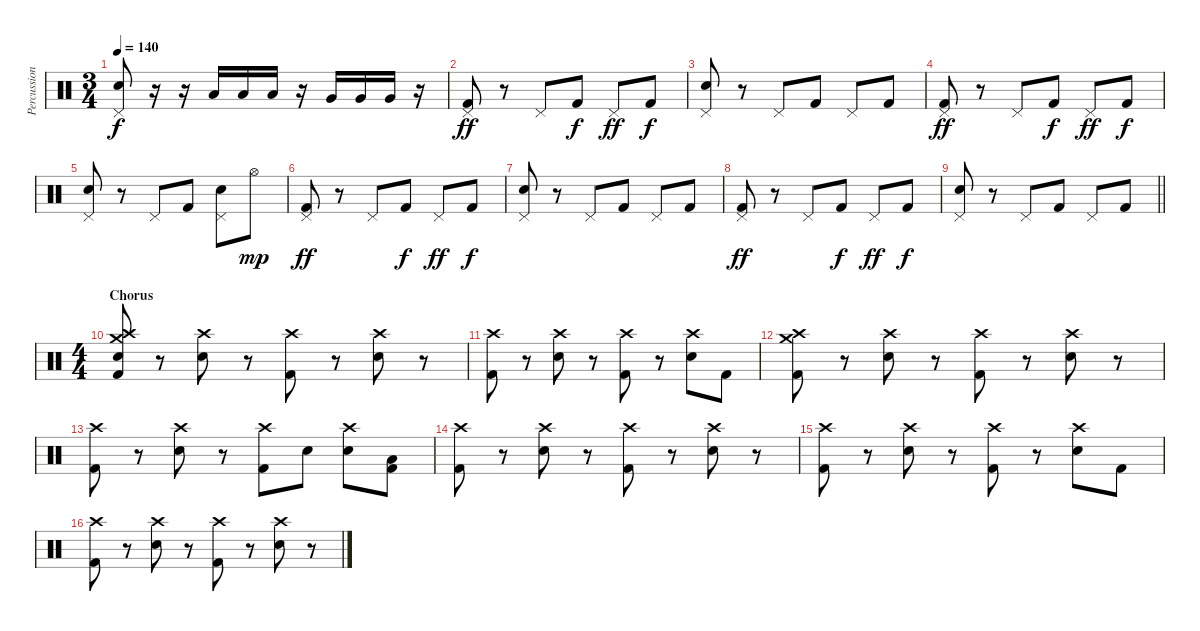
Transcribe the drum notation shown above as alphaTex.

\track ("Percussion" "Percussion") {instrument percussion}
\staff {score}
\articulation defaults
\ts (3 4)
\tempo 140
\clef neutral
\ks c
("Pedal Hi-Hat (hit)" "Electric Snare (hit)").8{dy f} r.16 r.16 "Low Tom (hit)".16 "Low Tom (hit)".16 "Low Tom (hit)".16 r.16 "Very Low Tom (hit)".16 "Very Low Tom (hit)".16 "Very Low Tom (hit)".16 r.16 |
("Pedal Hi-Hat (hit)" "Kick (hit) 2").8{dy ff} r.8 "Pedal Hi-Hat (hit)".8 "Kick (hit) 2".8{dy f} "Pedal Hi-Hat (hit)".8{dy ff} "Kick (hit) 2".8{dy f} |
("Pedal Hi-Hat (hit)" "Electric Snare (hit)").8 r.8 "Pedal Hi-Hat (hit)".8 "Kick (hit) 2".8 "Pedal Hi-Hat (hit)".8 "Kick (hit) 2".8 |
("Pedal Hi-Hat (hit)" "Kick (hit) 2").8{dy ff} r.8 "Pedal Hi-Hat (hit)".8 "Kick (hit) 2".8{dy f} "Pedal Hi-Hat (hit)".8{dy ff} "Kick (hit) 2".8{dy f} |
("Pedal Hi-Hat (hit)" "Electric Snare (hit)").8 r.8 "Pedal Hi-Hat (hit)".8 "Kick (hit) 2".8 ("Pedal Hi-Hat (hit)" "Electric Snare (hit)").8 "Hi-Hat (open)".8{dy mp} |
("Pedal Hi-Hat (hit)" "Kick (hit) 2").8{dy ff} r.8 "Pedal Hi-Hat (hit)".8 "Kick (hit) 2".8{dy f} "Pedal Hi-Hat (hit)".8{dy ff} "Kick (hit) 2".8{dy f} |
("Pedal Hi-Hat (hit)" "Electric Snare (hit)").8 r.8 "Pedal Hi-Hat (hit)".8 "Kick (hit) 2".8 "Pedal Hi-Hat (hit)".8 "Kick (hit) 2".8 |
("Pedal Hi-Hat (hit)" "Kick (hit) 2").8{dy ff} r.8 "Pedal Hi-Hat (hit)".8 "Kick (hit) 2".8{dy f} "Pedal Hi-Hat (hit)".8{dy ff} "Kick (hit) 2".8{dy f} |
\barLineRight lightlight
("Pedal Hi-Hat (hit)" "Electric Snare (hit)").8 r.8 "Pedal Hi-Hat (hit)".8 "Kick (hit) 2".8 "Pedal Hi-Hat (hit)".8 "Kick (hit) 2".8 |
\ts (4 4)
\section ("" "Chorus")
("Crash high (hit)" "Crash medium (hit)" "Snare (hit)" "Kick (hit) 2").8 r.8 ("Electric Snare (hit)" "Crash high (hit)").8 r.8 ("Crash high (hit)" "Kick (hit) 2").8 r.8 ("Electric Snare (hit)" "Crash high (hit)").8 r.8 |
("Crash high (hit)" "Kick (hit) 2").8 r.8 ("Electric Snare (hit)" "Crash high (hit)").8 r.8 ("Crash high (hit)" "Kick (hit) 2").8 r.8 ("Electric Snare (hit)" "Crash high (hit)").8 "Kick (hit) 2".8 |
("Crash high (hit)" "Crash medium (hit)" "Kick (hit) 2").8 r.8 ("Electric Snare (hit)" "Crash high (hit)").8 r.8 ("Crash high (hit)" "Kick (hit) 2").8 r.8 ("Electric Snare (hit)" "Crash high (hit)").8 r.8 |
("Crash high (hit)" "Kick (hit) 2").8 r.8 ("Electric Snare (hit)" "Crash high (hit)").8 r.8 ("Crash high (hit)" "Kick (hit) 2").8 "Electric Snare (hit)".8 ("Electric Snare (hit)" "Crash high (hit)").8 ("Low Floor Tom (hit)" "Kick (hit) 2").8 |
("Crash high (hit)" "Kick (hit) 2").8 r.8 ("Electric Snare (hit)" "Crash high (hit)").8 r.8 ("Crash high (hit)" "Kick (hit) 2").8 r.8 ("Electric Snare (hit)" "Crash high (hit)").8 r.8 |
("Crash high (hit)" "Kick (hit) 2").8 r.8 ("Electric Snare (hit)" "Crash high (hit)").8 r.8 ("Crash high (hit)" "Kick (hit) 2").8 r.8 ("Electric Snare (hit)" "Crash high (hit)").8 "Kick (hit) 2".8 |
("Crash high (hit)" "Kick (hit) 2").8 r.8 ("Electric Snare (hit)" "Crash high (hit)").8 r.8 ("Crash high (hit)" "Kick (hit) 2").8 r.8 ("Electric Snare (hit)" "Crash high (hit)").8 r.8
